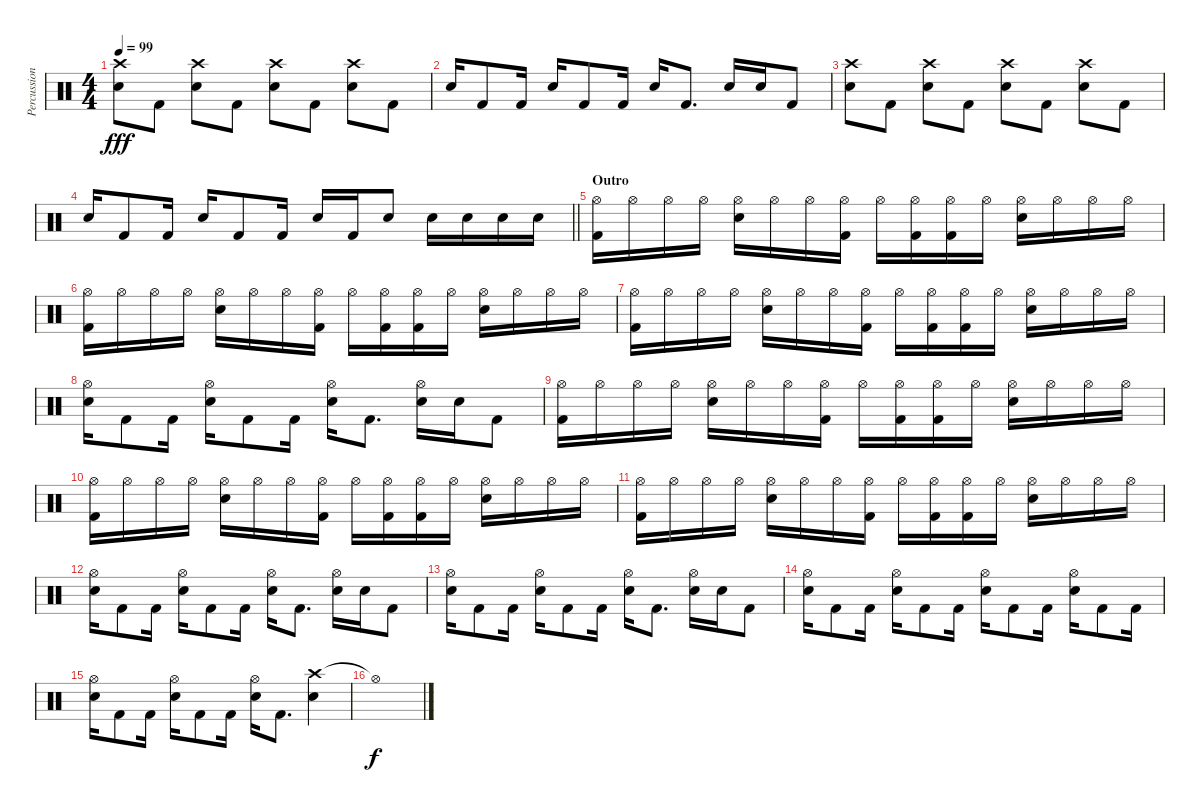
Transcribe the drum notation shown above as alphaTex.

\track ("Percussion" "Percussion") {instrument percussion}
\staff {score}
\articulation defaults
\ts (4 4)
\tempo 99
\clef neutral
\ks c
("Crash high (hit)" "Snare (hit) 2").8{dy fff} "Kick (hit) 2".8 ("Crash high (hit)" "Snare (hit) 2").8 "Kick (hit) 2".8 ("Crash high (hit)" "Snare (hit) 2").8 "Kick (hit) 2".8 ("Crash high (hit)" "Snare (hit) 2").8 "Kick (hit) 2".8 |
"Snare (hit) 2".16 "Kick (hit) 2".8 "Kick (hit) 2".16 "Snare (hit) 2".16 "Kick (hit) 2".8 "Kick (hit) 2".16 "Snare (hit) 2".16 "Kick (hit) 2".8{d} "Snare (hit) 2".16 "Snare (hit) 2".16 "Kick (hit) 2".8 |
("Crash high (hit)" "Snare (hit) 2").8 "Kick (hit) 2".8 ("Crash high (hit)" "Snare (hit) 2").8 "Kick (hit) 2".8 ("Crash high (hit)" "Snare (hit) 2").8 "Kick (hit) 2".8 ("Crash high (hit)" "Snare (hit) 2").8 "Kick (hit) 2".8 |
\barLineRight lightlight "Snare (hit) 2".16 "Kick (hit) 2".8 "Kick (hit) 2".16 "Snare (hit) 2".16 "Kick (hit) 2".8 "Kick (hit) 2".16 "Snare (hit) 2".16 "Kick (hit) 2".16 "Snare (hit) 2".8 "Snare (hit) 2".16 "Snare (hit) 2".16 "Snare (hit) 2".16 "Snare (hit) 2".16
|
\section ("" "Outro")
("Hi-Hat (open)" "Kick (hit) 2").16 "Hi-Hat (open)".16 "Hi-Hat (open)".16 "Hi-Hat (open)".16 ("Hi-Hat (open)" "Snare (hit) 2").16 "Hi-Hat (open)".16 "Hi-Hat (open)".16 ("Hi-Hat (open)" "Kick (hit) 2").16 "Hi-Hat (open)".16 ("Hi-Hat (open)" "Kick (hit) 2").16 ("Hi-Hat (open)" "Kick (hit) 2").16 "Hi-Hat (open)".16 ("Hi-Hat (open)" "Snare (hit) 2").16 "Hi-Hat (open)".16 "Hi-Hat (open)".16 "Hi-Hat (open)".16 |
("Hi-Hat (open)" "Kick (hit) 2").16 "Hi-Hat (open)".16 "Hi-Hat (open)".16 "Hi-Hat (open)".16 ("Hi-Hat (open)" "Snare (hit) 2").16 "Hi-Hat (open)".16 "Hi-Hat (open)".16 ("Hi-Hat (open)" "Kick (hit) 2").16 "Hi-Hat (open)".16 ("Hi-Hat (open)" "Kick (hit) 2").16 ("Hi-Hat (open)" "Kick (hit) 2").16 "Hi-Hat (open)".16 ("Hi-Hat (open)" "Snare (hit) 2").16 "Hi-Hat (open)".16 "Hi-Hat (open)".16 "Hi-Hat (open)".16 |
("Hi-Hat (open)" "Kick (hit) 2").16 "Hi-Hat (open)".16 "Hi-Hat (open)".16 "Hi-Hat (open)".16 ("Hi-Hat (open)" "Snare (hit) 2").16 "Hi-Hat (open)".16 "Hi-Hat (open)".16 ("Hi-Hat (open)" "Kick (hit) 2").16 "Hi-Hat (open)".16 ("Hi-Hat (open)" "Kick (hit) 2").16 ("Hi-Hat (open)" "Kick (hit) 2").16 "Hi-Hat (open)".16 ("Hi-Hat (open)" "Snare (hit) 2").16 "Hi-Hat (open)".16 "Hi-Hat (open)".16 "Hi-Hat (open)".16 |
("Hi-Hat (open)" "Snare (hit) 2").16 "Kick (hit) 2".8 "Kick (hit) 2".16 ("Hi-Hat (open)" "Snare (hit) 2").16 "Kick (hit) 2".8 "Kick (hit) 2".16 ("Hi-Hat (open)" "Snare (hit) 2").16 "Kick (hit) 2".8{d} ("Hi-Hat (open)" "Snare (hit) 2").16 "Snare (hit) 2".16 "Kick (hit) 2".8 |
("Hi-Hat (open)" "Kick (hit) 2").16 "Hi-Hat (open)".16 "Hi-Hat (open)".16 "Hi-Hat (open)".16 ("Hi-Hat (open)" "Snare (hit) 2").16 "Hi-Hat (open)".16 "Hi-Hat (open)".16 ("Hi-Hat (open)" "Kick (hit) 2").16 "Hi-Hat (open)".16 ("Hi-Hat (open)" "Kick (hit) 2").16 ("Hi-Hat (open)" "Kick (hit) 2").16 "Hi-Hat (open)".16 ("Hi-Hat (open)" "Snare (hit) 2").16 "Hi-Hat (open)".16 "Hi-Hat (open)".16 "Hi-Hat (open)".16 |
("Hi-Hat (open)" "Kick (hit) 2").16 "Hi-Hat (open)".16 "Hi-Hat (open)".16 "Hi-Hat (open)".16 ("Hi-Hat (open)" "Snare (hit) 2").16 "Hi-Hat (open)".16 "Hi-Hat (open)".16 ("Hi-Hat (open)" "Kick (hit) 2").16 "Hi-Hat (open)".16 ("Hi-Hat (open)" "Kick (hit) 2").16 ("Hi-Hat (open)" "Kick (hit) 2").16 "Hi-Hat (open)".16 ("Hi-Hat (open)" "Snare (hit) 2").16 "Hi-Hat (open)".16 "Hi-Hat (open)".16 "Hi-Hat (open)".16 |
("Hi-Hat (open)" "Kick (hit) 2").16 "Hi-Hat (open)".16 "Hi-Hat (open)".16 "Hi-Hat (open)".16 ("Hi-Hat (open)" "Snare (hit) 2").16 "Hi-Hat (open)".16 "Hi-Hat (open)".16 ("Hi-Hat (open)" "Kick (hit) 2").16 "Hi-Hat (open)".16 ("Hi-Hat (open)" "Kick (hit) 2").16 ("Hi-Hat (open)" "Kick (hit) 2").16 "Hi-Hat (open)".16 ("Hi-Hat (open)" "Snare (hit) 2").16 "Hi-Hat (open)".16 "Hi-Hat (open)".16 "Hi-Hat (open)".16 |
("Hi-Hat (open)" "Snare (hit) 2").16 "Kick (hit) 2".8 "Kick (hit) 2".16 ("Hi-Hat (open)" "Snare (hit) 2").16 "Kick (hit) 2".8 "Kick (hit) 2".16 ("Hi-Hat (open)" "Snare (hit) 2").16 "Kick (hit) 2".8{d} ("Hi-Hat (open)" "Snare (hit) 2").16 "Snare (hit) 2".16 "Kick (hit) 2".8 |
("Hi-Hat (open)" "Snare (hit) 2").16 "Kick (hit) 2".8 "Kick (hit) 2".16 ("Hi-Hat (open)" "Snare (hit) 2").16 "Kick (hit) 2".8 "Kick (hit) 2".16 ("Hi-Hat (open)" "Snare (hit) 2").16 "Kick (hit) 2".8{d} ("Hi-Hat (open)" "Snare (hit) 2").16 "Snare (hit) 2".16 "Kick (hit) 2".8 |
("Hi-Hat (open)" "Snare (hit) 2").16 "Kick (hit) 2".8 "Kick (hit) 2".16 ("Hi-Hat (open)" "Snare (hit) 2").16 "Kick (hit) 2".8 "Kick (hit) 2".16 ("Hi-Hat (open)" "Snare (hit) 2").16 "Kick (hit) 2".8 "Kick (hit) 2".16 ("Hi-Hat (open)" "Snare (hit) 2").16 "Kick (hit) 2".8 "Kick (hit) 2".16 |
("Hi-Hat (open)" "Snare (hit) 2").16 "Kick (hit) 2".8 "Kick (hit) 2".16 ("Hi-Hat (open)" "Snare (hit) 2").16 "Kick (hit) 2".8 "Kick (hit) 2".16 ("Hi-Hat (open)" "Snare (hit) 2").16 "Kick (hit) 2".8{d} ("Crash high (hit)" "Snare (hit) 2").4 |
"Hi-Hat (open)"{t}.1{dy f}
